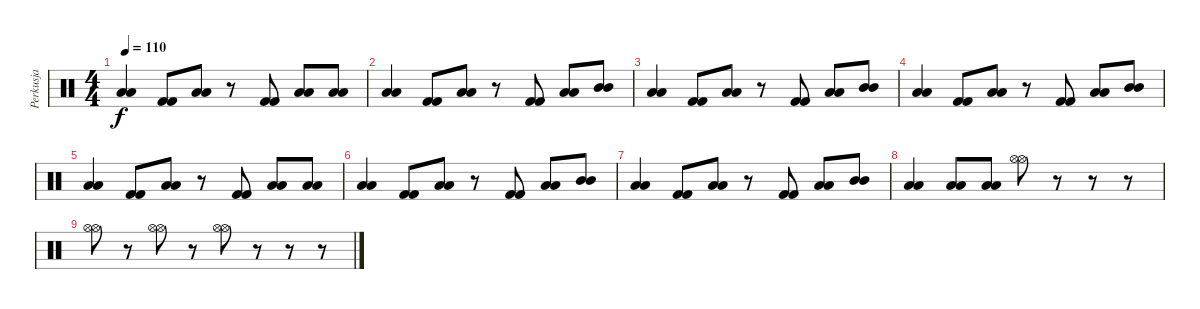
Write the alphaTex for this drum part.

\track ("Perkusja" "Perkusja") {instrument percussion}
\staff {score}
\articulation defaults
\ts (4 4)
\tempo 110
\clef neutral
\ks c
("Low Floor Tom (hit)" "Low Floor Tom (hit)").4{dy f} ("Kick (hit) 2" "Kick (hit) 2").8 ("Low Floor Tom (hit)" "Low Floor Tom (hit)").8 r.8 ("Kick (hit) 2" "Kick (hit) 2").8 ("Low Floor Tom (hit)" "Low Floor Tom (hit)").8 ("Low Tom (hit)" "Low Tom (hit)").8 |
("Low Tom (hit)" "Low Tom (hit)").4 ("Kick (hit) 2" "Kick (hit) 2").8 ("Low Tom (hit)" "Low Tom (hit)").8 r.8 ("Kick (hit) 2" "Kick (hit) 2").8 ("Low Tom (hit)" "Low Tom (hit)").8 ("Mid Tom (hit)" "Mid Tom (hit)").8 |
("Low Tom (hit)" "Low Tom (hit)").4 ("Kick (hit) 2" "Kick (hit) 2").8 ("Low Tom (hit)" "Low Tom (hit)").8 r.8 ("Kick (hit) 2" "Kick (hit) 2").8 ("Low Tom (hit)" "Low Tom (hit)").8 ("Mid Tom (hit)" "Mid Tom (hit)").8 |
("Low Tom (hit)" "Low Tom (hit)").4 ("Kick (hit) 2" "Kick (hit) 2").8 ("Low Tom (hit)" "Low Tom (hit)").8 r.8 ("Kick (hit) 2" "Kick (hit) 2").8 ("Low Tom (hit)" "Low Tom (hit)").8 ("Mid Tom (hit)" "Mid Tom (hit)").8 |
("Low Floor Tom (hit)" "Low Floor Tom (hit)").4 ("Kick (hit) 2" "Kick (hit) 2").8 ("Low Floor Tom (hit)" "Low Floor Tom (hit)").8 r.8 ("Kick (hit) 2" "Kick (hit) 2").8 ("Low Floor Tom (hit)" "Low Floor Tom (hit)").8 ("Low Tom (hit)" "Low Tom (hit)").8 |
("Low Tom (hit)" "Low Tom (hit)").4 ("Kick (hit) 2" "Kick (hit) 2").8 ("Low Tom (hit)" "Low Tom (hit)").8 r.8 ("Kick (hit) 2" "Kick (hit) 2").8 ("Low Tom (hit)" "Low Tom (hit)").8 ("Mid Tom (hit)" "Mid Tom (hit)").8 |
("Low Tom (hit)" "Low Tom (hit)").4 ("Kick (hit) 2" "Kick (hit) 2").8 ("Low Tom (hit)" "Low Tom (hit)").8 r.8 ("Kick (hit) 2" "Kick (hit) 2").8 ("Low Tom (hit)" "Low Tom (hit)").8 ("Mid Tom (hit)" "Mid Tom (hit)").8 |
("Low Tom (hit)" "Low Tom (hit)").4 ("Low Tom (hit)" "Low Tom (hit)").8 ("Low Tom (hit)" "Low Tom (hit)").8 ("Hi-Hat (open)" "Hi-Hat (open)").8 r.8 r.8 r.8 |
("Hi-Hat (open)" "Hi-Hat (open)").8 r.8 ("Hi-Hat (open)" "Hi-Hat (open)").8 r.8 ("Hi-Hat (open)" "Hi-Hat (open)").8 r.8 r.8 r.8
